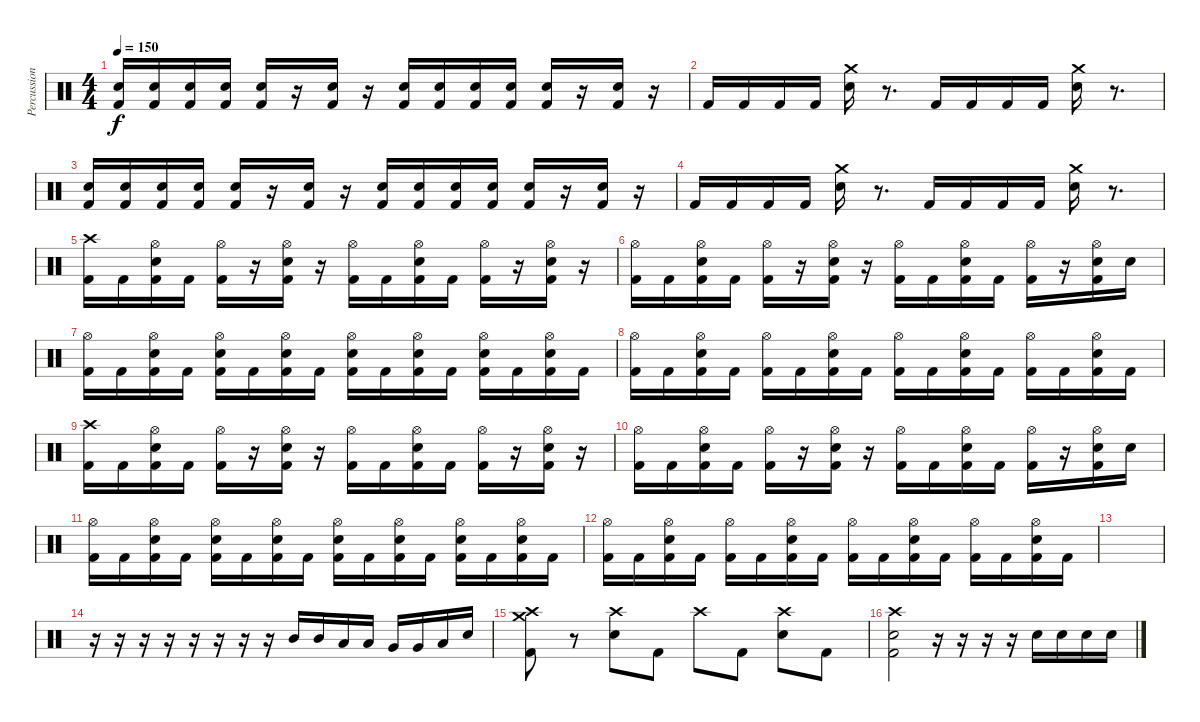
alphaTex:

\track ("Percussion" "Percussion") {instrument percussion}
\staff {score}
\articulation defaults
\ts (4 4)
\tempo 150
\clef neutral
\ks c
("Electric Snare (hit)" "Kick (hit) 2").16{dy f} ("Electric Snare (hit)" "Kick (hit) 2").16 ("Electric Snare (hit)" "Kick (hit) 2").16 ("Electric Snare (hit)" "Kick (hit) 2").16 ("Electric Snare (hit)" "Kick (hit) 2").16 r.16 ("Electric Snare (hit)" "Kick (hit) 2").16 r.16 ("Electric Snare (hit)" "Kick (hit) 2").16 ("Electric Snare (hit)" "Kick (hit) 2").16 ("Electric Snare (hit)" "Kick (hit) 2").16 ("Electric Snare (hit)" "Kick (hit) 2").16 ("Electric Snare (hit)" "Kick (hit) 2").16 r.16 ("Electric Snare (hit)" "Kick (hit) 2").16 r.16 |
"Kick (hit) 2".16 "Kick (hit) 2".16 "Kick (hit) 2".16 "Kick (hit) 2".16 ("Crash medium (hit)" "Electric Snare (hit)").16 r.8{d} "Kick (hit) 2".16 "Kick (hit) 2".16 "Kick (hit) 2".16 "Kick (hit) 2".16 ("Crash medium (hit)" "Electric Snare (hit)").16 r.8{d} |
("Electric Snare (hit)" "Kick (hit) 2").16 ("Electric Snare (hit)" "Kick (hit) 2").16 ("Electric Snare (hit)" "Kick (hit) 2").16 ("Electric Snare (hit)" "Kick (hit) 2").16 ("Electric Snare (hit)" "Kick (hit) 2").16 r.16 ("Electric Snare (hit)" "Kick (hit) 2").16 r.16 ("Electric Snare (hit)" "Kick (hit) 2").16 ("Electric Snare (hit)" "Kick (hit) 2").16 ("Electric Snare (hit)" "Kick (hit) 2").16 ("Electric Snare (hit)" "Kick (hit) 2").16 ("Electric Snare (hit)" "Kick (hit) 2").16 r.16 ("Electric Snare (hit)" "Kick (hit) 2").16 r.16 |
"Kick (hit) 2".16 "Kick (hit) 2".16 "Kick (hit) 2".16 "Kick (hit) 2".16 ("Crash medium (hit)" "Electric Snare (hit)").16 r.8{d} "Kick (hit) 2".16 "Kick (hit) 2".16 "Kick (hit) 2".16 "Kick (hit) 2".16 ("Crash medium (hit)" "Electric Snare (hit)").16 r.8{d} |
("Crash high (hit)" "Kick (hit) 2").16 "Kick (hit) 2".16 ("Hi-Hat (open)" "Electric Snare (hit)" "Kick (hit) 2").16 "Kick (hit) 2".16 ("Hi-Hat (open)" "Kick (hit) 2").16 r.16 ("Hi-Hat (open)" "Electric Snare (hit)" "Kick (hit) 2").16 r.16 ("Hi-Hat (open)" "Kick (hit) 2").16 "Kick (hit) 2".16 ("Hi-Hat (open)" "Electric Snare (hit)" "Kick (hit) 2").16 "Kick (hit) 2".16 ("Hi-Hat (open)" "Kick (hit) 2").16 r.16 ("Hi-Hat (open)" "Electric Snare (hit)" "Kick (hit) 2").16 r.16 |
("Hi-Hat (open)" "Kick (hit) 2").16 "Kick (hit) 2".16 ("Hi-Hat (open)" "Electric Snare (hit)" "Kick (hit) 2").16 "Kick (hit) 2".16 ("Hi-Hat (open)" "Kick (hit) 2").16 r.16 ("Hi-Hat (open)" "Electric Snare (hit)" "Kick (hit) 2").16 r.16 ("Hi-Hat (open)" "Kick (hit) 2").16 "Kick (hit) 2".16 ("Hi-Hat (open)" "Electric Snare (hit)" "Kick (hit) 2").16 "Kick (hit) 2".16 ("Hi-Hat (open)" "Kick (hit) 2").16 r.16 ("Hi-Hat (open)" "Electric Snare (hit)" "Kick (hit) 2").16 "Electric Snare (hit)".16 |
("Hi-Hat (open)" "Kick (hit) 2").16 "Kick (hit) 2".16 ("Hi-Hat (open)" "Electric Snare (hit)" "Kick (hit) 2").16 "Kick (hit) 2".16 ("Hi-Hat (open)" "Electric Snare (hit)" "Kick (hit) 2").16 "Kick (hit) 2".16 ("Hi-Hat (open)" "Electric Snare (hit)" "Kick (hit) 2").16 "Kick (hit) 2".16 ("Hi-Hat (open)" "Electric Snare (hit)" "Kick (hit) 2").16 "Kick (hit) 2".16 ("Hi-Hat (open)" "Electric Snare (hit)" "Kick (hit) 2").16 "Kick (hit) 2".16 ("Hi-Hat (open)" "Electric Snare (hit)" "Kick (hit) 2").16 "Kick (hit) 2".16 ("Hi-Hat (open)" "Electric Snare (hit)" "Kick (hit) 2").16 "Kick (hit) 2".16 |
("Hi-Hat (open)" "Kick (hit) 2").16 "Kick (hit) 2".16 ("Hi-Hat (open)" "Electric Snare (hit)" "Kick (hit) 2").16 "Kick (hit) 2".16 ("Hi-Hat (open)" "Kick (hit) 2").16 "Kick (hit) 2".16 ("Hi-Hat (open)" "Electric Snare (hit)" "Kick (hit) 2").16 "Kick (hit) 2".16 ("Hi-Hat (open)" "Kick (hit) 2").16 "Kick (hit) 2".16 ("Hi-Hat (open)" "Electric Snare (hit)" "Kick (hit) 2").16 "Kick (hit) 2".16 ("Hi-Hat (open)" "Kick (hit) 2").16 "Kick (hit) 2".16 ("Hi-Hat (open)" "Electric Snare (hit)" "Kick (hit) 2").16 "Kick (hit) 2".16 |
("Crash high (hit)" "Kick (hit) 2").16 "Kick (hit) 2".16 ("Hi-Hat (open)" "Electric Snare (hit)" "Kick (hit) 2").16 "Kick (hit) 2".16 ("Hi-Hat (open)" "Kick (hit) 2").16 r.16 ("Hi-Hat (open)" "Electric Snare (hit)" "Kick (hit) 2").16 r.16 ("Hi-Hat (open)" "Kick (hit) 2").16 "Kick (hit) 2".16 ("Hi-Hat (open)" "Electric Snare (hit)" "Kick (hit) 2").16 "Kick (hit) 2".16 ("Hi-Hat (open)" "Kick (hit) 2").16 r.16 ("Hi-Hat (open)" "Electric Snare (hit)" "Kick (hit) 2").16 r.16 |
("Hi-Hat (open)" "Kick (hit) 2").16 "Kick (hit) 2".16 ("Hi-Hat (open)" "Electric Snare (hit)" "Kick (hit) 2").16 "Kick (hit) 2".16 ("Hi-Hat (open)" "Kick (hit) 2").16 r.16 ("Hi-Hat (open)" "Electric Snare (hit)" "Kick (hit) 2").16 r.16 ("Hi-Hat (open)" "Kick (hit) 2").16 "Kick (hit) 2".16 ("Hi-Hat (open)" "Electric Snare (hit)" "Kick (hit) 2").16 "Kick (hit) 2".16 ("Hi-Hat (open)" "Kick (hit) 2").16 r.16 ("Hi-Hat (open)" "Electric Snare (hit)" "Kick (hit) 2").16 "Electric Snare (hit)".16 |
("Hi-Hat (open)" "Kick (hit) 2").16 "Kick (hit) 2".16 ("Hi-Hat (open)" "Electric Snare (hit)" "Kick (hit) 2").16 "Kick (hit) 2".16 ("Hi-Hat (open)" "Electric Snare (hit)" "Kick (hit) 2").16 "Kick (hit) 2".16 ("Hi-Hat (open)" "Electric Snare (hit)" "Kick (hit) 2").16 "Kick (hit) 2".16 ("Hi-Hat (open)" "Electric Snare (hit)" "Kick (hit) 2").16 "Kick (hit) 2".16 ("Hi-Hat (open)" "Electric Snare (hit)" "Kick (hit) 2").16 "Kick (hit) 2".16 ("Hi-Hat (open)" "Electric Snare (hit)" "Kick (hit) 2").16 "Kick (hit) 2".16 ("Hi-Hat (open)" "Electric Snare (hit)" "Kick (hit) 2").16 "Kick (hit) 2".16 |
("Hi-Hat (open)" "Kick (hit) 2").16 "Kick (hit) 2".16 ("Hi-Hat (open)" "Electric Snare (hit)" "Kick (hit) 2").16 "Kick (hit) 2".16 ("Hi-Hat (open)" "Kick (hit) 2").16 "Kick (hit) 2".16 ("Hi-Hat (open)" "Electric Snare (hit)" "Kick (hit) 2").16 "Kick (hit) 2".16 ("Hi-Hat (open)" "Kick (hit) 2").16 "Kick (hit) 2".16 ("Hi-Hat (open)" "Electric Snare (hit)" "Kick (hit) 2").16 "Kick (hit) 2".16 ("Hi-Hat (open)" "Kick (hit) 2").16 "Kick (hit) 2".16 ("Hi-Hat (open)" "Electric Snare (hit)" "Kick (hit) 2").16 "Kick (hit) 2".16 |
|
r.16 r.16 r.16 r.16 r.16 r.16 r.16 r.16 "Mid Tom (hit)".16 "Mid Tom (hit)".16 "Low Tom (hit)".16 "Low Tom (hit)".16 "Very Low Tom (hit)".16 "Very Low Tom (hit)".16 "Low Floor Tom (hit)".16 "Electric Snare (hit)".16 |
("Crash high (hit)" "Crash medium (hit)" "Kick (hit) 2").8 r.8 ("Crash high (hit)" "Electric Snare (hit)").8 "Kick (hit) 2".8 "Crash high (hit)".8 "Kick (hit) 2".8 ("Crash high (hit)" "Electric Snare (hit)").8 "Kick (hit) 2".8 |
("Crash high (hit)" "Electric Snare (hit)" "Kick (hit) 2").2 r.16 r.16 r.16 r.16 "Electric Snare (hit)".16 "Electric Snare (hit)".16 "Electric Snare (hit)".16 "Electric Snare (hit)".16
